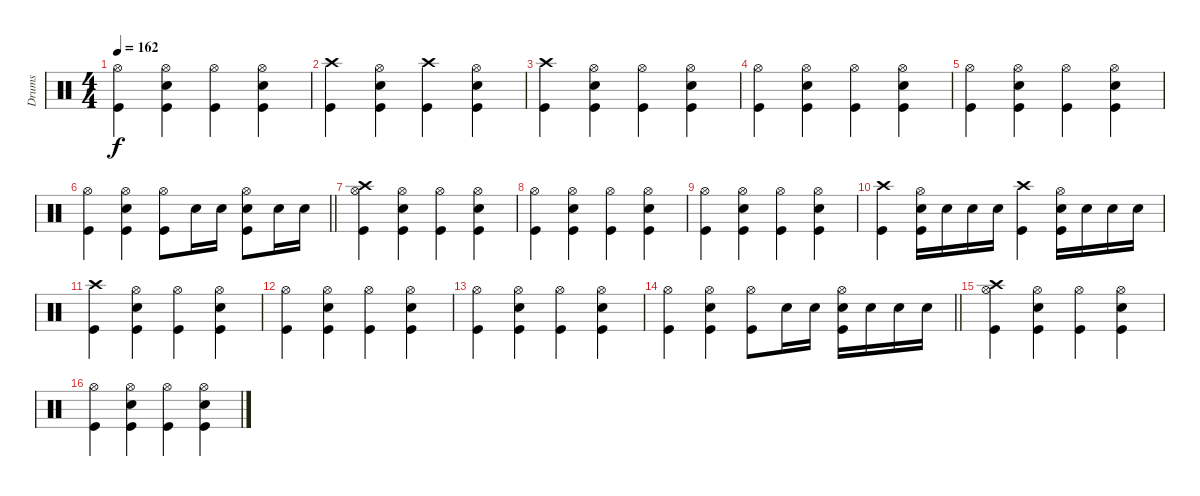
\track ("Drums" "Drums") {instrument percussion}
\staff {score}
\articulation defaults
\ts (4 4)
\tempo 162
\clef neutral
\ks c
("Hi-Hat (open)" "Kick (hit)").4{dy f} ("Hi-Hat (open)" "Snare (hit) 2" "Kick (hit)").4 ("Hi-Hat (open)" "Kick (hit)").4 ("Hi-Hat (open)" "Snare (hit) 2" "Kick (hit)").4 |
("Crash high (hit)" "Kick (hit)").4 ("Hi-Hat (open)" "Snare (hit) 2" "Kick (hit)").4 ("Crash high (hit)" "Kick (hit)").4 ("Hi-Hat (open)" "Snare (hit) 2" "Kick (hit)").4 |
("Crash high (hit)" "Kick (hit)").4 ("Hi-Hat (open)" "Snare (hit) 2" "Kick (hit)").4 ("Hi-Hat (open)" "Kick (hit)").4 ("Hi-Hat (open)" "Snare (hit) 2" "Kick (hit)").4 |
("Hi-Hat (open)" "Kick (hit)").4 ("Hi-Hat (open)" "Snare (hit) 2" "Kick (hit)").4 ("Hi-Hat (open)" "Kick (hit)").4 ("Hi-Hat (open)" "Snare (hit) 2" "Kick (hit)").4 |
("Hi-Hat (open)" "Kick (hit)").4 ("Hi-Hat (open)" "Snare (hit) 2" "Kick (hit)").4 ("Hi-Hat (open)" "Kick (hit)").4 ("Hi-Hat (open)" "Snare (hit) 2" "Kick (hit)").4 |
\barLineRight lightlight
("Hi-Hat (open)" "Kick (hit)").4 ("Hi-Hat (open)" "Snare (hit) 2" "Kick (hit)").4 ("Hi-Hat (open)" "Kick (hit)").8 "Snare (hit) 2".16 "Snare (hit) 2".16 ("Hi-Hat (open)" "Snare (hit) 2" "Kick (hit)").8 "Snare (hit) 2".16 "Snare (hit) 2".16 |
("Crash high (hit)" "Hi-Hat (open)" "Kick (hit)").4 ("Hi-Hat (open)" "Snare (hit) 2" "Kick (hit)").4 ("Hi-Hat (open)" "Kick (hit)").4 ("Hi-Hat (open)" "Snare (hit) 2" "Kick (hit)").4 |
("Hi-Hat (open)" "Kick (hit)").4 ("Hi-Hat (open)" "Snare (hit) 2" "Kick (hit)").4 ("Hi-Hat (open)" "Kick (hit)").4 ("Hi-Hat (open)" "Snare (hit) 2" "Kick (hit)").4 |
("Hi-Hat (open)" "Kick (hit)").4 ("Hi-Hat (open)" "Snare (hit) 2" "Kick (hit)").4 ("Hi-Hat (open)" "Kick (hit)").4 ("Hi-Hat (open)" "Snare (hit) 2" "Kick (hit)").4 |
("Crash high (hit)" "Kick (hit)").4 ("Hi-Hat (open)" "Snare (hit) 2" "Kick (hit)").16 "Snare (hit) 2".16 "Snare (hit) 2".16 "Snare (hit) 2".16 ("Crash high (hit)" "Kick (hit)").4 ("Hi-Hat (open)" "Snare (hit) 2" "Kick (hit)").16 "Snare (hit) 2".16 "Snare (hit) 2".16 "Snare (hit) 2".16 |
("Crash high (hit)" "Kick (hit)").4 ("Hi-Hat (open)" "Snare (hit) 2" "Kick (hit)").4 ("Hi-Hat (open)" "Kick (hit)").4 ("Hi-Hat (open)" "Snare (hit) 2" "Kick (hit)").4 |
("Hi-Hat (open)" "Kick (hit)").4 ("Hi-Hat (open)" "Snare (hit) 2" "Kick (hit)").4 ("Hi-Hat (open)" "Kick (hit)").4 ("Hi-Hat (open)" "Snare (hit) 2" "Kick (hit)").4 |
("Hi-Hat (open)" "Kick (hit)").4 ("Hi-Hat (open)" "Snare (hit) 2" "Kick (hit)").4 ("Hi-Hat (open)" "Kick (hit)").4 ("Hi-Hat (open)" "Snare (hit) 2" "Kick (hit)").4 |
\barLineRight lightlight
("Hi-Hat (open)" "Kick (hit)").4 ("Hi-Hat (open)" "Snare (hit) 2" "Kick (hit)").4 ("Hi-Hat (open)" "Kick (hit)").8 "Snare (hit) 2".16 "Snare (hit) 2".16 ("Hi-Hat (open)" "Snare (hit) 2" "Kick (hit)").16 "Snare (hit) 2".16 "Snare (hit) 2".16 "Snare (hit) 2".16 |
("Crash high (hit)" "Hi-Hat (open)" "Kick (hit)").4 ("Hi-Hat (open)" "Snare (hit) 2" "Kick (hit)").4 ("Hi-Hat (open)" "Kick (hit)").4 ("Hi-Hat (open)" "Snare (hit) 2" "Kick (hit)").4 |
("Hi-Hat (open)" "Kick (hit)").4 ("Hi-Hat (open)" "Snare (hit) 2" "Kick (hit)").4 ("Hi-Hat (open)" "Kick (hit)").4 ("Hi-Hat (open)" "Snare (hit) 2" "Kick (hit)").4
